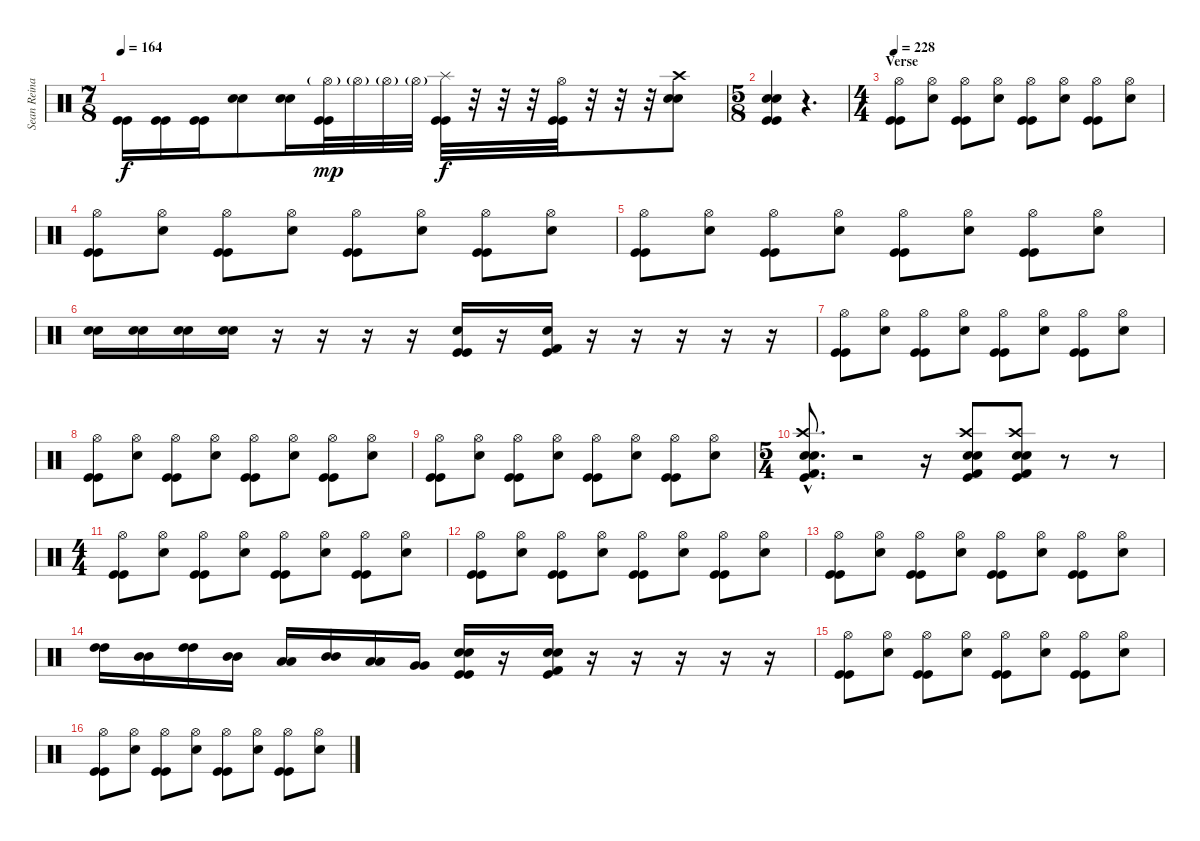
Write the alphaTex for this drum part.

\track ("Sean Reinart" "Sean Reina") {instrument percussion}
\staff {score}
\articulation defaults
\ts (7 8)
\tempo 164
\clef neutral
\ks c
("Kick (hit)" "Kick (hit)").16{dy f} ("Kick (hit)" "Kick (hit)").16 ("Kick (hit)" "Kick (hit)").16 ("Snare (hit) 2" "Electric Snare (hit)").8 ("Snare (hit) 2" "Electric Snare (hit)").16 ("Hi-Hat (open)"{g} "Kick (hit)" "Kick (hit)").32{dy mp} "Hi-Hat (open)"{g}.32 "Hi-Hat (open)"{g}.32 "Hi-Hat (open)"{g}.32 ("Splash (hit)" "Kick (hit)" "Kick (hit)").32{dy f} r.32 r.32 r.32 ("Hi-Hat (open)" "Kick (hit)" "Kick (hit)").32 r.32 r.32 r.32 ("Crash high (hit)" "Snare (hit) 2" "Electric Snare (hit)").8 |
\ts (5 8)
("Snare (hit) 2" "Electric Snare (hit)" "Kick (hit)" "Kick (hit)").4 r.4{d} |
\ts (4 4)
\section ("" "Verse")
\tempo 228
("Hi-Hat (open)" "Kick (hit)" "Kick (hit)").8 ("Hi-Hat (open)" "Snare (hit) 2").8 ("Hi-Hat (open)" "Kick (hit)" "Kick (hit)").8 ("Hi-Hat (open)" "Snare (hit) 2").8 ("Hi-Hat (open)" "Kick (hit)" "Kick (hit)").8 ("Hi-Hat (open)" "Snare (hit) 2").8 ("Hi-Hat (open)" "Kick (hit)" "Kick (hit)").8 ("Hi-Hat (open)" "Snare (hit) 2").8 |
("Hi-Hat (open)" "Kick (hit)" "Kick (hit)").8 ("Hi-Hat (open)" "Snare (hit) 2").8 ("Hi-Hat (open)" "Kick (hit)" "Kick (hit)").8 ("Hi-Hat (open)" "Snare (hit) 2").8 ("Hi-Hat (open)" "Kick (hit)" "Kick (hit)").8 ("Hi-Hat (open)" "Snare (hit) 2").8 ("Hi-Hat (open)" "Kick (hit)" "Kick (hit)").8 ("Hi-Hat (open)" "Snare (hit) 2").8 |
("Hi-Hat (open)" "Kick (hit)" "Kick (hit)").8 ("Hi-Hat (open)" "Snare (hit) 2").8 ("Hi-Hat (open)" "Kick (hit)" "Kick (hit)").8 ("Hi-Hat (open)" "Snare (hit) 2").8 ("Hi-Hat (open)" "Kick (hit)" "Kick (hit)").8 ("Hi-Hat (open)" "Snare (hit) 2").8 ("Hi-Hat (open)" "Kick (hit)" "Kick (hit)").8 ("Hi-Hat (open)" "Snare (hit) 2").8 |
("Snare (hit) 2" "Electric Snare (hit)").16 ("Snare (hit) 2" "Electric Snare (hit)").16 ("Snare (hit) 2" "Electric Snare (hit)").16 ("Snare (hit) 2" "Electric Snare (hit)").16 r.16 r.16 r.16 r.16 ("Snare (hit) 2" "Kick (hit)" "Kick (hit)").16 r.16 ("Snare (hit) 2" "Kick (hit)" "Kick (hit) 2").16 r.16 r.16 r.16 r.16 r.16 |
("Hi-Hat (open)" "Kick (hit)" "Kick (hit)").8 ("Hi-Hat (open)" "Snare (hit) 2").8 ("Hi-Hat (open)" "Kick (hit)" "Kick (hit)").8 ("Hi-Hat (open)" "Snare (hit) 2").8 ("Hi-Hat (open)" "Kick (hit)" "Kick (hit)").8 ("Hi-Hat (open)" "Snare (hit) 2").8 ("Hi-Hat (open)" "Kick (hit)" "Kick (hit)").8 ("Hi-Hat (open)" "Snare (hit) 2").8 |
("Hi-Hat (open)" "Kick (hit)" "Kick (hit)").8 ("Hi-Hat (open)" "Snare (hit) 2").8 ("Hi-Hat (open)" "Kick (hit)" "Kick (hit)").8 ("Hi-Hat (open)" "Snare (hit) 2").8 ("Hi-Hat (open)" "Kick (hit)" "Kick (hit)").8 ("Hi-Hat (open)" "Snare (hit) 2").8 ("Hi-Hat (open)" "Kick (hit)" "Kick (hit)").8 ("Hi-Hat (open)" "Snare (hit) 2").8 |
("Hi-Hat (open)" "Kick (hit)" "Kick (hit)").8 ("Hi-Hat (open)" "Snare (hit) 2").8 ("Hi-Hat (open)" "Kick (hit)" "Kick (hit)").8 ("Hi-Hat (open)" "Snare (hit) 2").8 ("Hi-Hat (open)" "Kick (hit)" "Kick (hit)").8 ("Hi-Hat (open)" "Snare (hit) 2").8 ("Hi-Hat (open)" "Kick (hit)" "Kick (hit)").8 ("Hi-Hat (open)" "Snare (hit) 2").8 |
\ts (5 4)
("Crash high (hit)"{hac} "Snare (hit) 2"{hac} "Electric Snare (hit)"{hac} "Kick (hit)"{hac} "Kick (hit) 2"{hac}).8{d} r.2 r.16 ("Crash high (hit)" "Snare (hit) 2" "Electric Snare (hit)" "Kick (hit)" "Kick (hit) 2").8 ("Crash high (hit)" "Snare (hit) 2" "Electric Snare (hit)" "Kick (hit)" "Kick (hit) 2").8 r.8 r.8 |
\ts (4 4)
("Hi-Hat (open)" "Kick (hit)" "Kick (hit)").8 ("Hi-Hat (open)" "Snare (hit) 2").8 ("Hi-Hat (open)" "Kick (hit)" "Kick (hit)").8 ("Hi-Hat (open)" "Snare (hit) 2").8 ("Hi-Hat (open)" "Kick (hit)" "Kick (hit)").8 ("Hi-Hat (open)" "Snare (hit) 2").8 ("Hi-Hat (open)" "Kick (hit)" "Kick (hit)").8 ("Hi-Hat (open)" "Snare (hit) 2").8 |
("Hi-Hat (open)" "Kick (hit)" "Kick (hit)").8 ("Hi-Hat (open)" "Snare (hit) 2").8 ("Hi-Hat (open)" "Kick (hit)" "Kick (hit)").8 ("Hi-Hat (open)" "Snare (hit) 2").8 ("Hi-Hat (open)" "Kick (hit)" "Kick (hit)").8 ("Hi-Hat (open)" "Snare (hit) 2").8 ("Hi-Hat (open)" "Kick (hit)" "Kick (hit)").8 ("Hi-Hat (open)" "Snare (hit) 2").8 |
("Hi-Hat (open)" "Kick (hit)" "Kick (hit)").8 ("Hi-Hat (open)" "Snare (hit) 2").8 ("Hi-Hat (open)" "Kick (hit)" "Kick (hit)").8 ("Hi-Hat (open)" "Snare (hit) 2").8 ("Hi-Hat (open)" "Kick (hit)" "Kick (hit)").8 ("Hi-Hat (open)" "Snare (hit) 2").8 ("Hi-Hat (open)" "Kick (hit)" "Kick (hit)").8 ("Hi-Hat (open)" "Snare (hit) 2").8 |
("High Tom (hit)" "High Tom (hit)").16 ("Mid Tom (hit)" "Mid Tom (hit)").16 ("High Tom (hit)" "High Tom (hit)").16 ("Mid Tom (hit)" "Mid Tom (hit)").16 ("Low Tom (hit)" "Low Tom (hit)").16 ("Mid Tom (hit)" "Mid Tom (hit)").16 ("Low Tom (hit)" "Low Tom (hit)").16 ("Very Low Tom (hit)" "Very Low Tom (hit)").16 ("Snare (hit) 2" "Electric Snare (hit)" "Kick (hit)" "Kick (hit)").16 r.16 ("Snare (hit) 2" "Electric Snare (hit)" "Kick (hit)" "Kick (hit) 2").16 r.16 r.16 r.16 r.16 r.16 |
("Hi-Hat (open)" "Kick (hit)" "Kick (hit)").8 ("Hi-Hat (open)" "Snare (hit) 2").8 ("Hi-Hat (open)" "Kick (hit)" "Kick (hit)").8 ("Hi-Hat (open)" "Snare (hit) 2").8 ("Hi-Hat (open)" "Kick (hit)" "Kick (hit)").8 ("Hi-Hat (open)" "Snare (hit) 2").8 ("Hi-Hat (open)" "Kick (hit)" "Kick (hit)").8 ("Hi-Hat (open)" "Snare (hit) 2").8 |
("Hi-Hat (open)" "Kick (hit)" "Kick (hit)").8 ("Hi-Hat (open)" "Snare (hit) 2").8 ("Hi-Hat (open)" "Kick (hit)" "Kick (hit)").8 ("Hi-Hat (open)" "Snare (hit) 2").8 ("Hi-Hat (open)" "Kick (hit)" "Kick (hit)").8 ("Hi-Hat (open)" "Snare (hit) 2").8 ("Hi-Hat (open)" "Kick (hit)" "Kick (hit)").8 ("Hi-Hat (open)" "Snare (hit) 2").8
